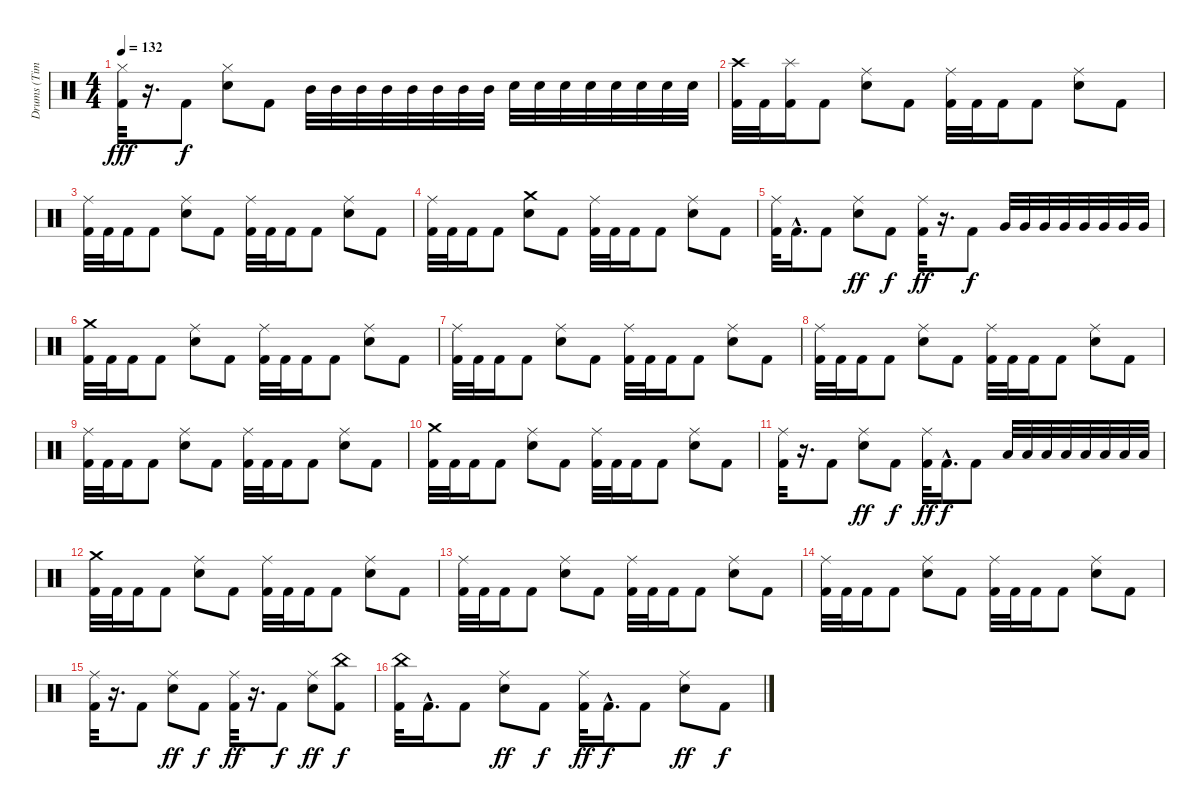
\track ("Drums (Tim Alexander)" "Drums (Tim") {instrument percussion}
\staff {score}
\articulation defaults
\ts (4 4)
\tempo 132
\clef neutral
\ks c
("Hi-Hat (closed)" "Kick (hit) 2").32{dy fff} r.16{d} "Kick (hit) 2".8{dy f} ("Hi-Hat (closed)" "Snare (hit) 2").8 "Kick (hit) 2".8 "Mid Tom (hit)".32 "Mid Tom (hit)".32 "Mid Tom (hit)".32 "Mid Tom (hit)".32 "Mid Tom (hit)".32 "Mid Tom (hit)".32 "Mid Tom (hit)".32 "Mid Tom (hit)".32 "Electric Snare (hit)".32 "Electric Snare (hit)".32 "Electric Snare (hit)".32 "Electric Snare (hit)".32 "Electric Snare (hit)".32 "Electric Snare (hit)".32 "Electric Snare (hit)".32 "Electric Snare (hit)".32 |
("Crash high (hit)" "Kick (hit) 2").32 "Kick (hit) 2".32 ("Splash (hit)" "Kick (hit) 2").16 "Kick (hit) 2".8 ("Ride (middle)" "Snare (hit) 2").8 "Kick (hit) 2".8 ("Ride (middle)" "Kick (hit) 2").32 "Kick (hit) 2".32 "Kick (hit) 2".16 "Kick (hit) 2".8 ("Ride (middle)" "Snare (hit) 2").8 "Kick (hit) 2".8 |
("Ride (middle)" "Kick (hit) 2").32 "Kick (hit) 2".32 "Kick (hit) 2".16 "Kick (hit) 2".8 ("Ride (middle)" "Snare (hit) 2").8 "Kick (hit) 2".8 ("Ride (middle)" "Kick (hit) 2").32 "Kick (hit) 2".32 "Kick (hit) 2".16 "Kick (hit) 2".8 ("Ride (middle)" "Snare (hit) 2").8 "Kick (hit) 2".8 |
("Ride (middle)" "Kick (hit) 2").32 "Kick (hit) 2".32 "Kick (hit) 2".16 "Kick (hit) 2".8 ("Crash medium (hit)" "Snare (hit) 2").8 "Kick (hit) 2".8 ("Ride (middle)" "Kick (hit) 2").32 "Kick (hit) 2".32 "Kick (hit) 2".16 "Kick (hit) 2".8 ("Ride (middle)" "Snare (hit) 2").8 "Kick (hit) 2".8 |
("Ride (middle)" "Kick (hit) 2").32 "Kick (hit) 2"{hac}.16{d} "Kick (hit) 2".8 ("Ride (middle)" "Snare (hit) 2").8{dy ff} "Kick (hit) 2".8{dy f} ("Ride (middle)" "Kick (hit) 2").32{dy ff} r.16{d} "Kick (hit) 2".8{dy f} "Very Low Tom (hit)".32 "Very Low Tom (hit)".32 "Very Low Tom (hit)".32 "Very Low Tom (hit)".32 "Very Low Tom (hit)".32 "Very Low Tom (hit)".32 "Very Low Tom (hit)".32 "Very Low Tom (hit)".32 |
("Crash medium (hit)" "Kick (hit) 2").32 "Kick (hit) 2".32 "Kick (hit) 2".16 "Kick (hit) 2".8 ("Ride (middle)" "Snare (hit) 2").8 "Kick (hit) 2".8 ("Ride (middle)" "Kick (hit) 2").32 "Kick (hit) 2".32 "Kick (hit) 2".16 "Kick (hit) 2".8 ("Ride (middle)" "Snare (hit) 2").8 "Kick (hit) 2".8 |
("Ride (middle)" "Kick (hit) 2").32 "Kick (hit) 2".32 "Kick (hit) 2".16 "Kick (hit) 2".8 ("Ride (middle)" "Snare (hit) 2").8 "Kick (hit) 2".8 ("Ride (middle)" "Kick (hit) 2").32 "Kick (hit) 2".32 "Kick (hit) 2".16 "Kick (hit) 2".8 ("Ride (middle)" "Snare (hit) 2").8 "Kick (hit) 2".8 |
("Ride (middle)" "Kick (hit) 2").32 "Kick (hit) 2".32 "Kick (hit) 2".16 "Kick (hit) 2".8 ("Ride (middle)" "Snare (hit) 2").8 "Kick (hit) 2".8 ("Ride (middle)" "Kick (hit) 2").32 "Kick (hit) 2".32 "Kick (hit) 2".16 "Kick (hit) 2".8 ("Ride (middle)" "Snare (hit) 2").8 "Kick (hit) 2".8 |
("Ride (middle)" "Kick (hit) 2").32 "Kick (hit) 2".32 "Kick (hit) 2".16 "Kick (hit) 2".8 ("Ride (middle)" "Snare (hit) 2").8 "Kick (hit) 2".8 ("Ride (middle)" "Kick (hit) 2").32 "Kick (hit) 2".32 "Kick (hit) 2".16 "Kick (hit) 2".8 ("Ride (middle)" "Snare (hit) 2").8 "Kick (hit) 2".8 |
("Crash medium (hit)" "Kick (hit) 2").32 "Kick (hit) 2".32 "Kick (hit) 2".16 "Kick (hit) 2".8 ("Ride (middle)" "Snare (hit) 2").8 "Kick (hit) 2".8 ("Ride (middle)" "Kick (hit) 2").32 "Kick (hit) 2".32 "Kick (hit) 2".16 "Kick (hit) 2".8 ("Ride (middle)" "Snare (hit) 2").8 "Kick (hit) 2".8 |
("Ride (middle)" "Kick (hit) 2").32 r.16{d} "Kick (hit) 2".8 ("Ride (middle)" "Snare (hit) 2").8{dy ff} "Kick (hit) 2".8{dy f} ("Ride (middle)" "Kick (hit) 2").32{dy ff} "Kick (hit) 2"{hac}.16{d dy f} "Kick (hit) 2".8 "Low Tom (hit)".32 "Low Tom (hit)".32 "Low Tom (hit)".32 "Low Tom (hit)".32 "Low Tom (hit)".32 "Low Tom (hit)".32 "Low Tom (hit)".32 "Low Tom (hit)".32 |
("Crash medium (hit)" "Kick (hit) 2").32 "Kick (hit) 2".32 "Kick (hit) 2".16 "Kick (hit) 2".8 ("Ride (middle)" "Snare (hit) 2").8 "Kick (hit) 2".8 ("Ride (middle)" "Kick (hit) 2").32 "Kick (hit) 2".32 "Kick (hit) 2".16 "Kick (hit) 2".8 ("Ride (middle)" "Snare (hit) 2").8 "Kick (hit) 2".8 |
("Ride (middle)" "Kick (hit) 2").32 "Kick (hit) 2".32 "Kick (hit) 2".16 "Kick (hit) 2".8 ("Ride (middle)" "Snare (hit) 2").8 "Kick (hit) 2".8 ("Ride (middle)" "Kick (hit) 2").32 "Kick (hit) 2".32 "Kick (hit) 2".16 "Kick (hit) 2".8 ("Ride (middle)" "Snare (hit) 2").8 "Kick (hit) 2".8 |
("Ride (middle)" "Kick (hit) 2").32 "Kick (hit) 2".32 "Kick (hit) 2".16 "Kick (hit) 2".8 ("Ride (middle)" "Snare (hit) 2").8 "Kick (hit) 2".8 ("Ride (middle)" "Kick (hit) 2").32 "Kick (hit) 2".32 "Kick (hit) 2".16 "Kick (hit) 2".8 ("Ride (middle)" "Snare (hit) 2").8 "Kick (hit) 2".8 |
("Ride (middle)" "Kick (hit) 2").32 r.16{d} "Kick (hit) 2".8 ("Ride (middle)" "Snare (hit) 2").8{dy ff} "Kick (hit) 2".8{dy f} ("Ride (middle)" "Kick (hit) 2").32{dy ff} r.16{d} "Kick (hit) 2".8{dy f} ("Ride (middle)" "Snare (hit) 2").8{dy ff} ("China (hit)" "Kick (hit) 2").8{dy f} |
("China (hit)" "Kick (hit) 2").32 "Kick (hit) 2"{hac}.16{d} "Kick (hit) 2".8 ("Ride (middle)" "Snare (hit) 2").8{dy ff} "Kick (hit) 2".8{dy f} ("Ride (middle)" "Kick (hit) 2").32{dy ff} "Kick (hit) 2"{hac}.16{d dy f} "Kick (hit) 2".8 ("Ride (middle)" "Snare (hit) 2").8{dy ff} "Kick (hit) 2".8{dy f}
